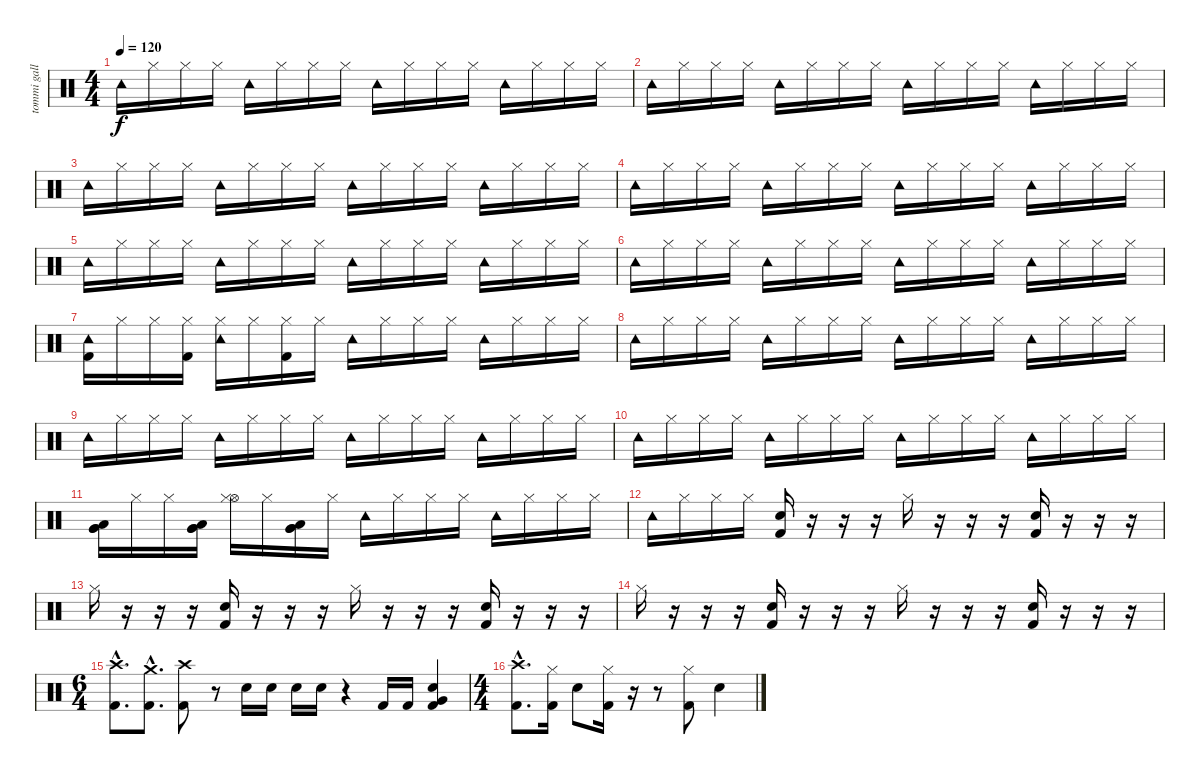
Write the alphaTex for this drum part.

\track ("tommi gallo" "tommi gall") {instrument percussion}
\staff {score}
\articulation defaults
\ts (4 4)
\tempo 120
\clef neutral
\ks c "Tambourine (hit)".16{dy f} "Hi-Hat (closed)".16 "Hi-Hat (closed)".16 "Hi-Hat (closed)".16 "Tambourine (hit)".16 "Hi-Hat (closed)".16 "Hi-Hat (closed)".16 "Hi-Hat (closed)".16 "Tambourine (hit)".16 "Hi-Hat (closed)".16 "Hi-Hat (closed)".16 "Hi-Hat (closed)".16 "Tambourine (hit)".16 "Hi-Hat (closed)".16 "Hi-Hat (closed)".16 "Hi-Hat (closed)".16
|
"Tambourine (hit)".16 "Hi-Hat (closed)".16 "Hi-Hat (closed)".16 "Hi-Hat (closed)".16 "Tambourine (hit)".16 "Hi-Hat (closed)".16 "Hi-Hat (closed)".16 "Hi-Hat (closed)".16 "Tambourine (hit)".16 "Hi-Hat (closed)".16 "Hi-Hat (closed)".16 "Hi-Hat (closed)".16 "Tambourine (hit)".16 "Hi-Hat (closed)".16 "Hi-Hat (closed)".16 "Hi-Hat (closed)".16 |
"Tambourine (hit)".16 "Hi-Hat (closed)".16 "Hi-Hat (closed)".16 "Hi-Hat (closed)".16 "Tambourine (hit)".16 "Hi-Hat (closed)".16 "Hi-Hat (closed)".16 "Hi-Hat (closed)".16 "Tambourine (hit)".16 "Hi-Hat (closed)".16 "Hi-Hat (closed)".16 "Hi-Hat (closed)".16 "Tambourine (hit)".16 "Hi-Hat (closed)".16 "Hi-Hat (closed)".16 "Hi-Hat (closed)".16 |
"Tambourine (hit)".16 "Hi-Hat (closed)".16 "Hi-Hat (closed)".16 "Hi-Hat (closed)".16 "Tambourine (hit)".16 "Hi-Hat (closed)".16 "Hi-Hat (closed)".16 "Hi-Hat (closed)".16 "Tambourine (hit)".16 "Hi-Hat (closed)".16 "Hi-Hat (closed)".16 "Hi-Hat (closed)".16 "Tambourine (hit)".16 "Hi-Hat (closed)".16 "Hi-Hat (closed)".16 "Hi-Hat (closed)".16 |
"Tambourine (hit)".16 "Hi-Hat (closed)".16 "Hi-Hat (closed)".16 "Hi-Hat (closed)".16 "Tambourine (hit)".16 "Hi-Hat (closed)".16 "Hi-Hat (closed)".16 "Hi-Hat (closed)".16 "Tambourine (hit)".16 "Hi-Hat (closed)".16 "Hi-Hat (closed)".16 "Hi-Hat (closed)".16 "Tambourine (hit)".16 "Hi-Hat (closed)".16 "Hi-Hat (closed)".16 "Hi-Hat (closed)".16 |
"Tambourine (hit)".16 "Hi-Hat (closed)".16 "Hi-Hat (closed)".16 "Hi-Hat (closed)".16 "Tambourine (hit)".16 "Hi-Hat (closed)".16 "Hi-Hat (closed)".16 "Hi-Hat (closed)".16 "Tambourine (hit)".16 "Hi-Hat (closed)".16 "Hi-Hat (closed)".16 "Hi-Hat (closed)".16 "Tambourine (hit)".16 "Hi-Hat (closed)".16 "Hi-Hat (closed)".16 "Hi-Hat (closed)".16 |
("Tambourine (hit)" "Kick (hit) 2").16 "Hi-Hat (closed)".16 "Hi-Hat (closed)".16 ("Hi-Hat (closed)" "Kick (hit) 2").16 ("Tambourine (hit)" "Hi-Hat (closed)").16 "Hi-Hat (closed)".16 ("Hi-Hat (closed)" "Kick (hit) 2").16 "Hi-Hat (closed)".16 "Tambourine (hit)".16 "Hi-Hat (closed)".16 "Hi-Hat (closed)".16 "Hi-Hat (closed)".16 "Tambourine (hit)".16 "Hi-Hat (closed)".16 "Hi-Hat (closed)".16 "Hi-Hat (closed)".16 |
"Tambourine (hit)".16 "Hi-Hat (closed)".16 "Hi-Hat (closed)".16 "Hi-Hat (closed)".16 "Tambourine (hit)".16 "Hi-Hat (closed)".16 "Hi-Hat (closed)".16 "Hi-Hat (closed)".16 "Tambourine (hit)".16 "Hi-Hat (closed)".16 "Hi-Hat (closed)".16 "Hi-Hat (closed)".16 "Tambourine (hit)".16 "Hi-Hat (closed)".16 "Hi-Hat (closed)".16 "Hi-Hat (closed)".16 |
"Tambourine (hit)".16 "Hi-Hat (closed)".16 "Hi-Hat (closed)".16 "Hi-Hat (closed)".16 "Tambourine (hit)".16 "Hi-Hat (closed)".16 "Hi-Hat (closed)".16 "Hi-Hat (closed)".16 "Tambourine (hit)".16 "Hi-Hat (closed)".16 "Hi-Hat (closed)".16 "Hi-Hat (closed)".16 "Tambourine (hit)".16 "Hi-Hat (closed)".16 "Hi-Hat (closed)".16 "Hi-Hat (closed)".16 |
"Tambourine (hit)".16 "Hi-Hat (closed)".16 "Hi-Hat (closed)".16 "Hi-Hat (closed)".16 "Tambourine (hit)".16 "Hi-Hat (closed)".16 "Hi-Hat (closed)".16 "Hi-Hat (closed)".16 "Tambourine (hit)".16 "Hi-Hat (closed)".16 "Hi-Hat (closed)".16 "Hi-Hat (closed)".16 "Tambourine (hit)".16 "Hi-Hat (closed)".16 "Hi-Hat (closed)".16 "Hi-Hat (closed)".16 |
("Very Low Tom (hit)" "Very Low Tom (hit)" "Low Tom (hit)").16 "Hi-Hat (closed)".16 "Hi-Hat (closed)".16 ("Very Low Tom (hit)" "Very Low Tom (hit)" "Low Tom (hit)").16 ("Hi-Hat (open)" "Hi-Hat (closed)").16 "Hi-Hat (closed)".16 ("Very Low Tom (hit)" "Very Low Tom (hit)" "Low Tom (hit)").16 "Hi-Hat (closed)".16 "Tambourine (hit)".16 "Hi-Hat (closed)".16 "Hi-Hat (closed)".16 "Hi-Hat (closed)".16 "Tambourine (hit)".16 "Hi-Hat (closed)".16 "Hi-Hat (closed)".16 "Hi-Hat (closed)".16 |
"Tambourine (hit)".16 "Hi-Hat (closed)".16 "Hi-Hat (closed)".16 "Hi-Hat (closed)".16 ("Snare (hit) 2" "Kick (hit) 2").16 r.16 r.16 r.16 "Hi-Hat (closed)".16 r.16 r.16 r.16 ("Snare (hit) 2" "Kick (hit) 2").16 r.16 r.16 r.16 |
"Hi-Hat (closed)".16 r.16 r.16 r.16 ("Snare (hit) 2" "Kick (hit) 2").16 r.16 r.16 r.16 "Hi-Hat (closed)".16 r.16 r.16 r.16 ("Snare (hit) 2" "Kick (hit) 2").16 r.16 r.16 r.16 |
"Hi-Hat (closed)".16 r.16 r.16 r.16 ("Snare (hit) 2" "Kick (hit) 2").16 r.16 r.16 r.16 "Hi-Hat (closed)".16 r.16 r.16 r.16 ("Snare (hit) 2" "Kick (hit) 2").16 r.16 r.16 r.16 |
\ts (6 4)
("Crash high (hit)"{hac} "Kick (hit) 2"{hac}).8{d} ("Crash medium (hit)"{hac} "Kick (hit) 2"{hac}).8{d} ("Crash high (hit)" "Kick (hit) 2").8 r.8 "Snare (hit) 2".16 "Snare (hit) 2".16 "Snare (hit) 2".16 "Snare (hit) 2".16 r.4 "Kick (hit) 2".16 "Kick (hit) 2".16 ("Very Low Tom (hit)" "Snare (hit) 2" "Kick (hit) 2").4 |
\ts (4 4)
("Crash high (hit)"{hac} "Kick (hit) 2"{hac}).8{d} ("Hi-Hat (closed)" "Kick (hit) 2").16 "Snare (hit) 2".8 ("Hi-Hat (closed)" "Kick (hit) 2").16 r.16 r.8 ("Hi-Hat (closed)" "Kick (hit) 2").8 "Snare (hit) 2".4
